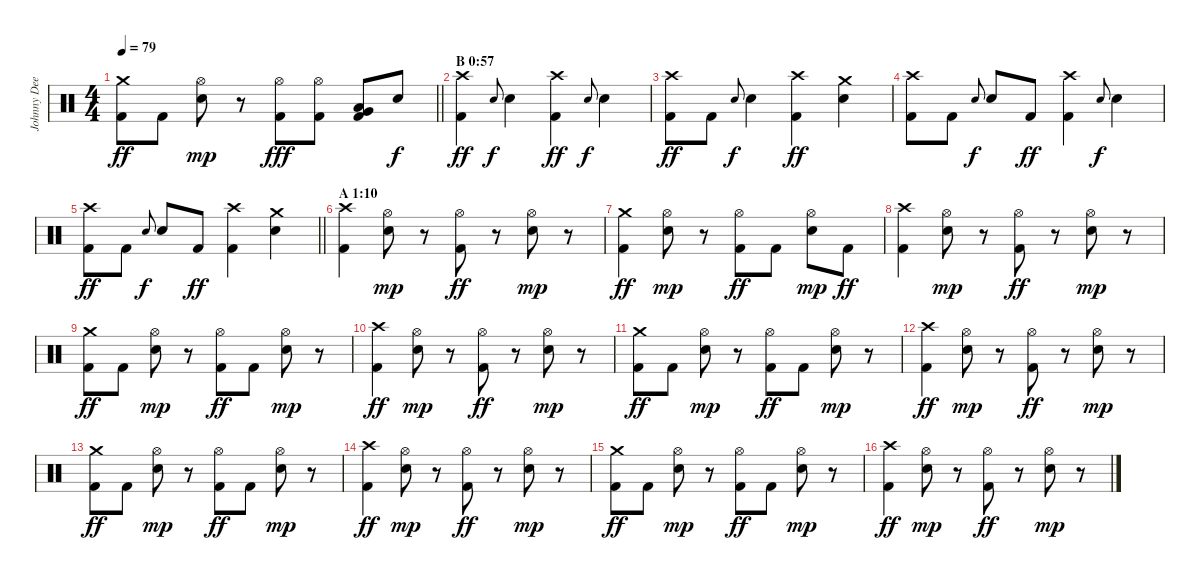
\track ("Johnny Dee (drums)" "Johnny Dee") {instrument percussion}
\staff {score}
\articulation defaults
\ts (4 4)
\tempo 79
\clef neutral
\barLineRight lightlight
\ks c
("Crash medium (hit)" "Kick (hit) 2").8{dy ff} "Kick (hit) 2".8 ("Hi-Hat (open)" "Electric Snare (hit)").8{dy mp} r.8 ("Hi-Hat (open)" "Kick (hit) 2").8{dy fff} ("Hi-Hat (open)" "Kick (hit) 2").8 ("Very Low Tom (hit)" "Low Tom (hit)" "Kick (hit) 2").8 "Electric Snare (hit)".8{dy f} |
\section ("" "B 0:57")
("Crash high (hit)" "Kick (hit) 2").4{dy ff} "Electric Snare (hit)".8{gr onbeat dy f} "Electric Snare (hit)".4 ("Crash high (hit)" "Kick (hit) 2").4{dy ff} "Electric Snare (hit)".8{gr onbeat dy f} "Electric Snare (hit)".4 |
("Crash high (hit)" "Kick (hit) 2").8{dy ff} "Kick (hit) 2".8 "Electric Snare (hit)".8{gr onbeat dy f} "Electric Snare (hit)".4 ("Crash high (hit)" "Kick (hit) 2").4{dy ff} ("Crash medium (hit)" "Electric Snare (hit)").4 |
("Crash high (hit)" "Kick (hit) 2").8 "Kick (hit) 2".8 "Electric Snare (hit)".8{gr onbeat dy f} "Electric Snare (hit)".8 "Kick (hit) 2".8{dy ff} ("Crash high (hit)" "Kick (hit) 2").4 "Electric Snare (hit)".8{gr onbeat dy f} "Electric Snare (hit)".4 |
\barLineRight lightlight
("Crash high (hit)" "Kick (hit) 2").8{dy ff} "Kick (hit) 2".8 "Electric Snare (hit)".8{gr onbeat dy f} "Electric Snare (hit)".8 "Kick (hit) 2".8{dy ff} ("Crash high (hit)" "Kick (hit) 2").4 ("Crash medium (hit)" "Electric Snare (hit)").4 |
\section ("" "A 1:10")
("Crash high (hit)" "Kick (hit) 2").4 ("Hi-Hat (open)" "Electric Snare (hit)").8{dy mp} r.8 ("Hi-Hat (open)" "Kick (hit) 2").8{dy ff} r.8 ("Hi-Hat (open)" "Electric Snare (hit)").8{dy mp} r.8 |
("Crash medium (hit)" "Kick (hit) 2").4{dy ff} ("Hi-Hat (open)" "Electric Snare (hit)").8{dy mp} r.8 ("Hi-Hat (open)" "Kick (hit) 2").8{dy ff} "Kick (hit) 2".8 ("Hi-Hat (open)" "Electric Snare (hit)").8{dy mp} "Kick (hit) 2".8{dy ff} |
("Crash high (hit)" "Kick (hit) 2").4 ("Hi-Hat (open)" "Electric Snare (hit)").8{dy mp} r.8 ("Hi-Hat (open)" "Kick (hit) 2").8{dy ff} r.8 ("Hi-Hat (open)" "Electric Snare (hit)").8{dy mp} r.8 |
("Crash medium (hit)" "Kick (hit) 2").8{dy ff} "Kick (hit) 2".8 ("Hi-Hat (open)" "Electric Snare (hit)").8{dy mp} r.8 ("Hi-Hat (open)" "Kick (hit) 2").8{dy ff} "Kick (hit) 2".8 ("Hi-Hat (open)" "Electric Snare (hit)").8{dy mp} r.8 |
("Crash high (hit)" "Kick (hit) 2").4{dy ff} ("Hi-Hat (open)" "Electric Snare (hit)").8{dy mp} r.8 ("Hi-Hat (open)" "Kick (hit) 2").8{dy ff} r.8 ("Hi-Hat (open)" "Electric Snare (hit)").8{dy mp} r.8 |
("Crash medium (hit)" "Kick (hit) 2").8{dy ff} "Kick (hit) 2".8 ("Hi-Hat (open)" "Electric Snare (hit)").8{dy mp} r.8 ("Hi-Hat (open)" "Kick (hit) 2").8{dy ff} "Kick (hit) 2".8 ("Hi-Hat (open)" "Electric Snare (hit)").8{dy mp} r.8 |
("Crash high (hit)" "Kick (hit) 2").4{dy ff} ("Hi-Hat (open)" "Electric Snare (hit)").8{dy mp} r.8 ("Hi-Hat (open)" "Kick (hit) 2").8{dy ff} r.8 ("Hi-Hat (open)" "Electric Snare (hit)").8{dy mp} r.8 |
("Crash medium (hit)" "Kick (hit) 2").8{dy ff} "Kick (hit) 2".8 ("Hi-Hat (open)" "Electric Snare (hit)").8{dy mp} r.8 ("Hi-Hat (open)" "Kick (hit) 2").8{dy ff} "Kick (hit) 2".8 ("Hi-Hat (open)" "Electric Snare (hit)").8{dy mp} r.8 |
("Crash high (hit)" "Kick (hit) 2").4{dy ff} ("Hi-Hat (open)" "Electric Snare (hit)").8{dy mp} r.8 ("Hi-Hat (open)" "Kick (hit) 2").8{dy ff} r.8 ("Hi-Hat (open)" "Electric Snare (hit)").8{dy mp} r.8 |
("Crash medium (hit)" "Kick (hit) 2").8{dy ff} "Kick (hit) 2".8 ("Hi-Hat (open)" "Electric Snare (hit)").8{dy mp} r.8 ("Hi-Hat (open)" "Kick (hit) 2").8{dy ff} "Kick (hit) 2".8 ("Hi-Hat (open)" "Electric Snare (hit)").8{dy mp} r.8 |
("Crash high (hit)" "Kick (hit) 2").4{dy ff} ("Hi-Hat (open)" "Electric Snare (hit)").8{dy mp} r.8 ("Hi-Hat (open)" "Kick (hit) 2").8{dy ff} r.8 ("Hi-Hat (open)" "Electric Snare (hit)").8{dy mp} r.8
